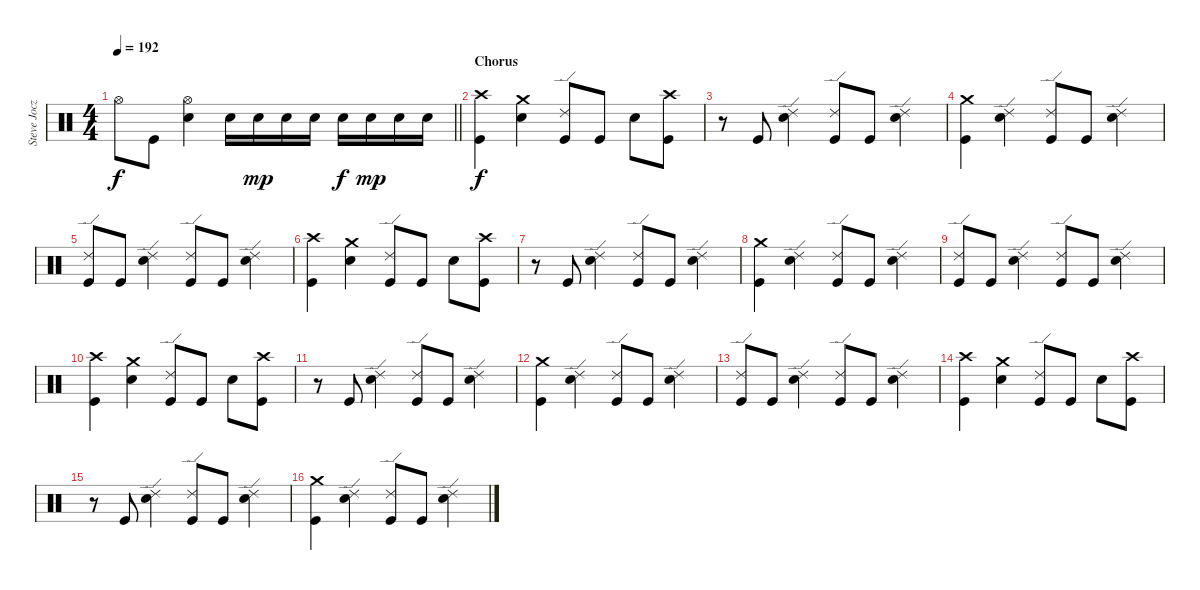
\track ("Steve Jocz" "Steve Jocz") {instrument percussion}
\staff {score}
\articulation defaults
\ts (4 4)
\tempo 192
\clef neutral
\barLineRight lightlight
\ks c "Hi-Hat (open)".8{dy f} "Kick (hit)".8
("Hi-Hat (open)" "Electric Snare (hit)").4 "Electric Snare (hit)".16 "Electric Snare (hit)".16{dy mp} "Electric Snare (hit)".16 "Electric Snare (hit)".16 "Electric Snare (hit)".16{dy f} "Electric Snare (hit)".16{dy mp} "Electric Snare (hit)".16 "Electric Snare (hit)".16 |
\section ("" "Chorus")
("Crash high (hit)" "Kick (hit)").4{dy f} ("Crash medium (hit)" "Electric Snare (hit)").4 ("Ride (edge) 2" "Kick (hit)").8 "Kick (hit)".8 "Electric Snare (hit)".8 ("Crash high (hit)" "Kick (hit)").8 |
r.8 "Kick (hit)".8 ("Ride (edge) 2" "Electric Snare (hit)").4 ("Ride (edge) 2" "Kick (hit)").8 "Kick (hit)".8 ("Ride (edge) 2" "Electric Snare (hit)").4 |
("Crash medium (hit)" "Kick (hit)").4 ("Ride (edge) 2" "Electric Snare (hit)").4 ("Ride (edge) 2" "Kick (hit)").8 "Kick (hit)".8 ("Ride (edge) 2" "Electric Snare (hit)").4 |
("Ride (edge) 2" "Kick (hit)").8 "Kick (hit)".8 ("Ride (edge) 2" "Electric Snare (hit)").4 ("Ride (edge) 2" "Kick (hit)").8 "Kick (hit)".8 ("Ride (edge) 2" "Electric Snare (hit)").4 |
("Crash high (hit)" "Kick (hit)").4 ("Crash medium (hit)" "Electric Snare (hit)").4 ("Ride (edge) 2" "Kick (hit)").8 "Kick (hit)".8 "Electric Snare (hit)".8 ("Crash high (hit)" "Kick (hit)").8 |
r.8 "Kick (hit)".8 ("Ride (edge) 2" "Electric Snare (hit)").4 ("Ride (edge) 2" "Kick (hit)").8 "Kick (hit)".8 ("Ride (edge) 2" "Electric Snare (hit)").4 |
("Crash medium (hit)" "Kick (hit)").4 ("Ride (edge) 2" "Electric Snare (hit)").4 ("Ride (edge) 2" "Kick (hit)").8 "Kick (hit)".8 ("Ride (edge) 2" "Electric Snare (hit)").4 |
("Ride (edge) 2" "Kick (hit)").8 "Kick (hit)".8 ("Ride (edge) 2" "Electric Snare (hit)").4 ("Ride (edge) 2" "Kick (hit)").8 "Kick (hit)".8 ("Ride (edge) 2" "Electric Snare (hit)").4 |
("Crash high (hit)" "Kick (hit)").4 ("Crash medium (hit)" "Electric Snare (hit)").4 ("Ride (edge) 2" "Kick (hit)").8 "Kick (hit)".8 "Electric Snare (hit)".8 ("Crash high (hit)" "Kick (hit)").8 |
r.8 "Kick (hit)".8 ("Ride (edge) 2" "Electric Snare (hit)").4 ("Ride (edge) 2" "Kick (hit)").8 "Kick (hit)".8 ("Ride (edge) 2" "Electric Snare (hit)").4 |
("Crash medium (hit)" "Kick (hit)").4 ("Ride (edge) 2" "Electric Snare (hit)").4 ("Ride (edge) 2" "Kick (hit)").8 "Kick (hit)".8 ("Ride (edge) 2" "Electric Snare (hit)").4 |
("Ride (edge) 2" "Kick (hit)").8 "Kick (hit)".8 ("Ride (edge) 2" "Electric Snare (hit)").4 ("Ride (edge) 2" "Kick (hit)").8 "Kick (hit)".8 ("Ride (edge) 2" "Electric Snare (hit)").4 |
("Crash high (hit)" "Kick (hit)").4 ("Crash medium (hit)" "Electric Snare (hit)").4 ("Ride (edge) 2" "Kick (hit)").8 "Kick (hit)".8 "Electric Snare (hit)".8 ("Crash high (hit)" "Kick (hit)").8 |
r.8 "Kick (hit)".8 ("Ride (edge) 2" "Electric Snare (hit)").4 ("Ride (edge) 2" "Kick (hit)").8 "Kick (hit)".8 ("Ride (edge) 2" "Electric Snare (hit)").4 |
("Crash medium (hit)" "Kick (hit)").4 ("Ride (edge) 2" "Electric Snare (hit)").4 ("Ride (edge) 2" "Kick (hit)").8 "Kick (hit)".8 ("Ride (edge) 2" "Electric Snare (hit)").4
